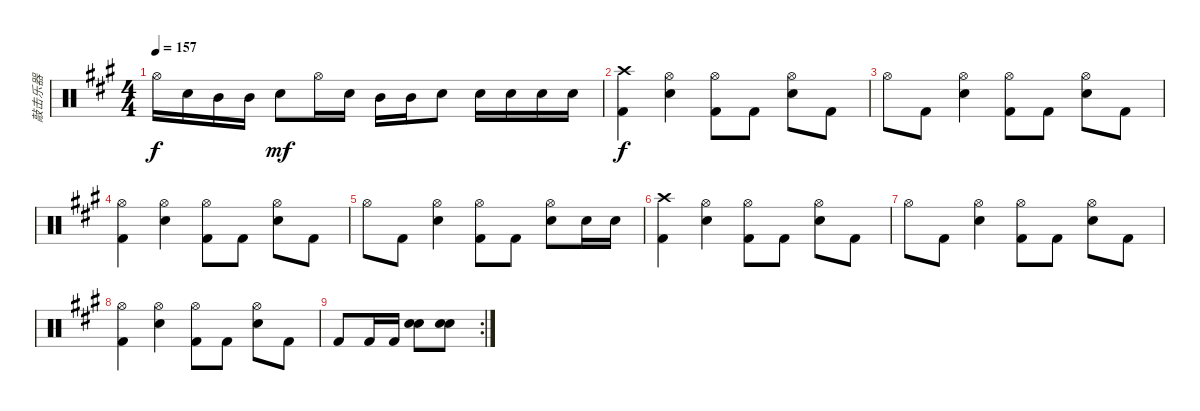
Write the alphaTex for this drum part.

\track ("敲击乐器" "敲击乐器") {instrument percussion}
\staff {score}
\articulation defaults
\ts (4 4)
\tempo 157
\clef neutral
\ks f#minor "Hi-Hat (open)".16{dy f} "Electric Snare (hit)".16 "Mid Tom (hit)".16 "Mid Tom (hit)".16 "Electric Snare (hit)".8{dy mf} "Hi-Hat (open)".16 "Electric Snare (hit)".16 "Mid Tom (hit)".16 "Mid Tom (hit)".16 "Electric Snare (hit)".8 "Electric Snare (hit)".16 "Electric Snare (hit)".16 "Electric Snare (hit)".16 "Electric Snare (hit)".16
|
("Crash high (hit)" "Kick (hit) 2").4{dy f} ("Hi-Hat (open)" "Electric Snare (hit)").4 ("Hi-Hat (open)" "Kick (hit) 2").8 "Kick (hit) 2".8 ("Hi-Hat (open)" "Electric Snare (hit)").8 "Kick (hit) 2".8 |
"Hi-Hat (open)".8 "Kick (hit) 2".8 ("Hi-Hat (open)" "Electric Snare (hit)").4 ("Hi-Hat (open)" "Kick (hit) 2").8 "Kick (hit) 2".8 ("Hi-Hat (open)" "Electric Snare (hit)").8 "Kick (hit) 2".8 |
("Hi-Hat (open)" "Kick (hit) 2").4 ("Hi-Hat (open)" "Electric Snare (hit)").4 ("Hi-Hat (open)" "Kick (hit) 2").8 "Kick (hit) 2".8 ("Hi-Hat (open)" "Electric Snare (hit)").8 "Kick (hit) 2".8 |
"Hi-Hat (open)".8 "Kick (hit) 2".8 ("Hi-Hat (open)" "Electric Snare (hit)").4 ("Hi-Hat (open)" "Kick (hit) 2").8 "Kick (hit) 2".8 ("Hi-Hat (open)" "Electric Snare (hit)").8 "Electric Snare (hit)".16 "Electric Snare (hit)".16 |
("Crash high (hit)" "Kick (hit) 2").4 ("Hi-Hat (open)" "Electric Snare (hit)").4 ("Hi-Hat (open)" "Kick (hit) 2").8 "Kick (hit) 2".8 ("Hi-Hat (open)" "Electric Snare (hit)").8 "Kick (hit) 2".8 |
"Hi-Hat (open)".8 "Kick (hit) 2".8 ("Hi-Hat (open)" "Electric Snare (hit)").4 ("Hi-Hat (open)" "Kick (hit) 2").8 "Kick (hit) 2".8 ("Hi-Hat (open)" "Electric Snare (hit)").8 "Kick (hit) 2".8 |
("Hi-Hat (open)" "Kick (hit) 2").4 ("Hi-Hat (open)" "Electric Snare (hit)").4 ("Hi-Hat (open)" "Kick (hit) 2").8 "Kick (hit) 2".8 ("Hi-Hat (open)" "Electric Snare (hit)").8 "Kick (hit) 2".8 |
\rc 2 "Kick (hit) 2".8 "Kick (hit) 2".16 "Kick (hit) 2".16
("Electric Snare (hit)" "Electric Snare (hit)").8{bd 240} ("Electric Snare (hit)" "Electric Snare (hit)").8{bd 240}
